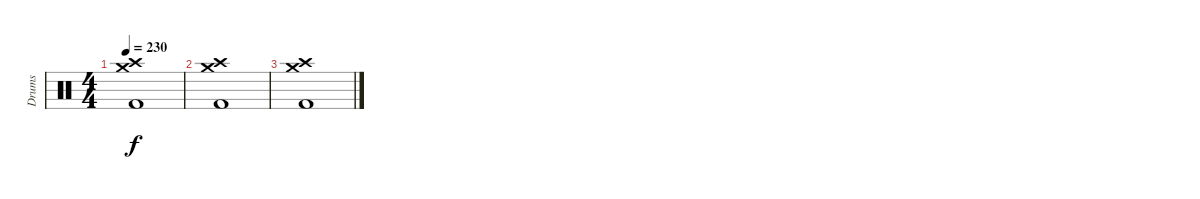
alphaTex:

\track ("Drums" "Drums") {instrument percussion}
\staff {score}
\articulation defaults
\ts (4 4)
\tempo 230
\clef neutral
\ks c
("Crash medium (hit)" "Crash high (hit)" "Kick (hit) 2").1{dy f} |
("Crash medium (hit)" "Crash high (hit)" "Kick (hit) 2").1 |
("Crash medium (hit)" "Crash high (hit)" "Kick (hit) 2").1
